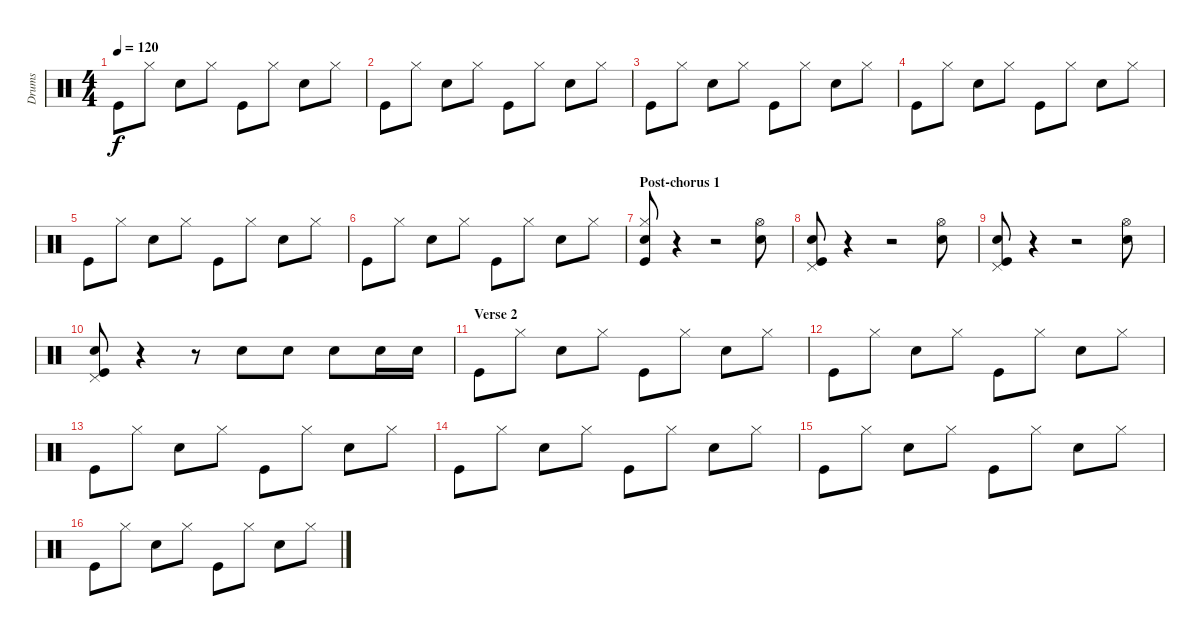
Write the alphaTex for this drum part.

\track ("Drums" "Drums") {instrument percussion}
\staff {score}
\articulation defaults
\ts (4 4)
\tempo 120
\clef neutral
\ks c "Kick (hit)".8{dy f} "Hi-Hat (closed)".8 "Snare (hit) 2".8 "Hi-Hat (closed)".8 "Kick (hit)".8 "Hi-Hat (closed)".8 "Snare (hit) 2".8 "Hi-Hat (closed)".8
|
"Kick (hit)".8 "Hi-Hat (closed)".8 "Snare (hit) 2".8 "Hi-Hat (closed)".8 "Kick (hit)".8 "Hi-Hat (closed)".8 "Snare (hit) 2".8 "Hi-Hat (closed)".8 |
"Kick (hit)".8 "Hi-Hat (closed)".8 "Snare (hit) 2".8 "Hi-Hat (closed)".8 "Kick (hit)".8 "Hi-Hat (closed)".8 "Snare (hit) 2".8 "Hi-Hat (closed)".8 |
"Kick (hit)".8 "Hi-Hat (closed)".8 "Snare (hit) 2".8 "Hi-Hat (closed)".8 "Kick (hit)".8 "Hi-Hat (closed)".8 "Snare (hit) 2".8 "Hi-Hat (closed)".8 |
"Kick (hit)".8 "Hi-Hat (closed)".8 "Snare (hit) 2".8 "Hi-Hat (closed)".8 "Kick (hit)".8 "Hi-Hat (closed)".8 "Snare (hit) 2".8 "Hi-Hat (closed)".8 |
"Kick (hit)".8 "Hi-Hat (closed)".8 "Snare (hit) 2".8 "Hi-Hat (closed)".8 "Kick (hit)".8 "Hi-Hat (closed)".8 "Snare (hit) 2".8 "Hi-Hat (closed)".8 |
\section ("" "Post-chorus 1")
("Hi-Hat (closed)" "Snare (hit) 2" "Kick (hit)").8 r.4 r.2 ("Hi-Hat (open)" "Snare (hit) 2").8 |
("Pedal Hi-Hat (hit)" "Snare (hit) 2" "Kick (hit)").8 r.4 r.2 ("Hi-Hat (open)" "Snare (hit) 2").8 |
("Pedal Hi-Hat (hit)" "Snare (hit) 2" "Kick (hit)").8 r.4 r.2 ("Hi-Hat (open)" "Snare (hit) 2").8 |
("Pedal Hi-Hat (hit)" "Snare (hit) 2" "Kick (hit)").8 r.4 r.8 "Snare (hit) 2".8 "Snare (hit) 2".8 "Snare (hit) 2".8 "Snare (hit) 2".16 "Snare (hit) 2".16 |
\section ("" "Verse 2")
"Kick (hit)".8 "Hi-Hat (closed)".8 "Snare (hit) 2".8 "Hi-Hat (closed)".8 "Kick (hit)".8 "Hi-Hat (closed)".8 "Snare (hit) 2".8 "Hi-Hat (closed)".8 |
"Kick (hit)".8 "Hi-Hat (closed)".8 "Snare (hit) 2".8 "Hi-Hat (closed)".8 "Kick (hit)".8 "Hi-Hat (closed)".8 "Snare (hit) 2".8 "Hi-Hat (closed)".8 |
"Kick (hit)".8 "Hi-Hat (closed)".8 "Snare (hit) 2".8 "Hi-Hat (closed)".8 "Kick (hit)".8 "Hi-Hat (closed)".8 "Snare (hit) 2".8 "Hi-Hat (closed)".8 |
"Kick (hit)".8 "Hi-Hat (closed)".8 "Snare (hit) 2".8 "Hi-Hat (closed)".8 "Kick (hit)".8 "Hi-Hat (closed)".8 "Snare (hit) 2".8 "Hi-Hat (closed)".8 |
"Kick (hit)".8 "Hi-Hat (closed)".8 "Snare (hit) 2".8 "Hi-Hat (closed)".8 "Kick (hit)".8 "Hi-Hat (closed)".8 "Snare (hit) 2".8 "Hi-Hat (closed)".8 |
"Kick (hit)".8 "Hi-Hat (closed)".8 "Snare (hit) 2".8 "Hi-Hat (closed)".8 "Kick (hit)".8 "Hi-Hat (closed)".8 "Snare (hit) 2".8 "Hi-Hat (closed)".8
